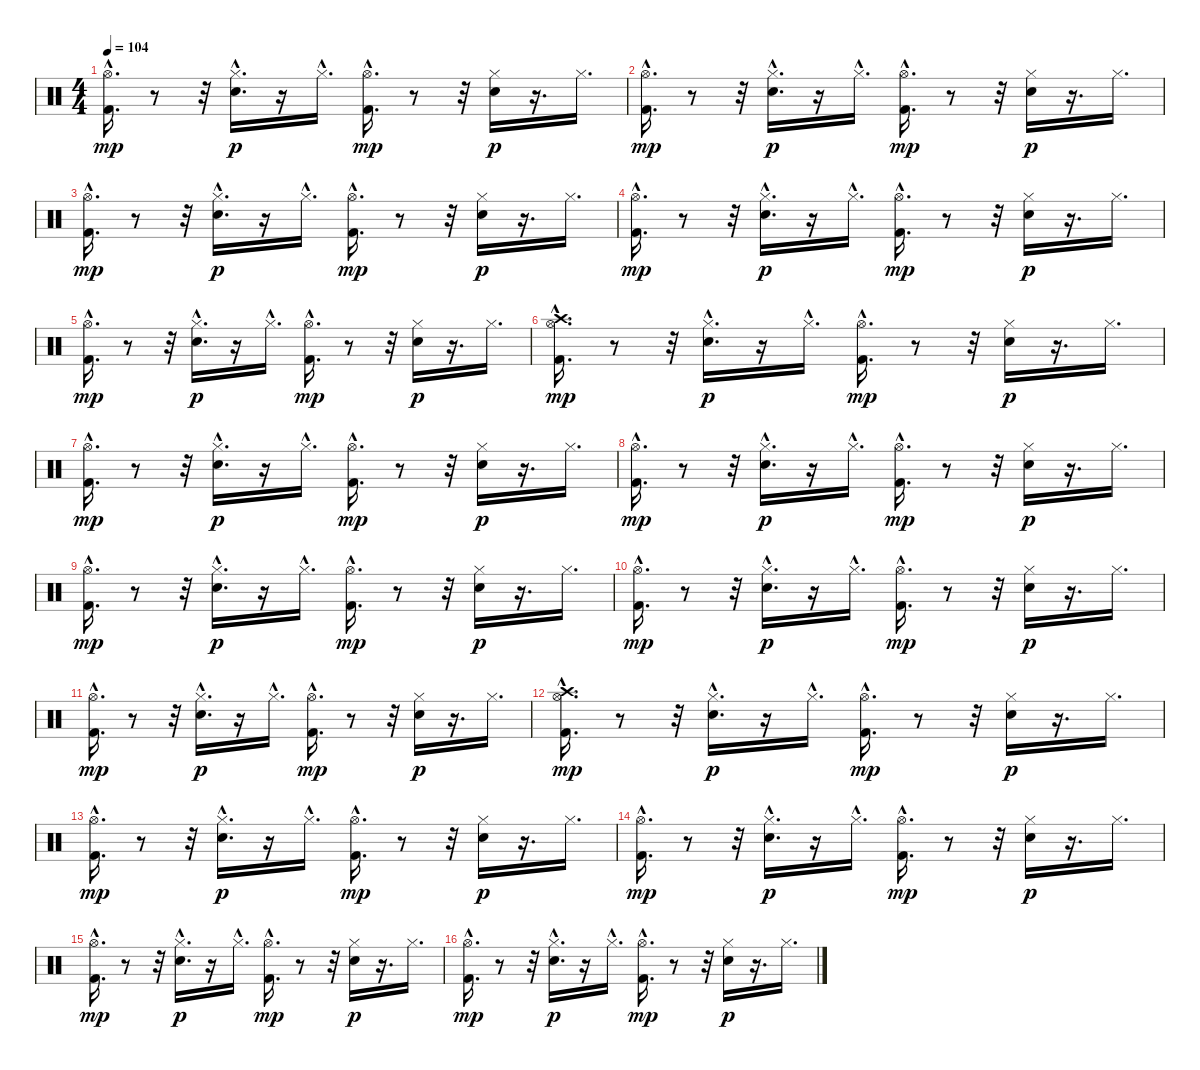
\track "" {instrument percussion}
\staff {score}
\articulation defaults
\ts (4 4)
\tempo 104
\clef neutral
\ks c
("Hi-Hat (open)"{hac} "Kick (hit) 2"{hac}).16{d dy mp} r.8 r.32 ("Hi-Hat (closed)"{hac} "Snare (hit) 2"{hac}).16{d dy p} r.16 "Hi-Hat (closed)"{hac}.16{d} ("Hi-Hat (open)"{hac} "Kick (hit) 2"{hac}).16{d dy mp} r.8 r.32 ("Hi-Hat (closed)" "Snare (hit) 2").16{dy p} r.16{d} "Hi-Hat (closed)".16{d} |
("Hi-Hat (open)"{hac} "Kick (hit) 2"{hac}).16{d dy mp} r.8 r.32 ("Hi-Hat (closed)"{hac} "Snare (hit) 2"{hac}).16{d dy p} r.16 "Hi-Hat (closed)"{hac}.16{d} ("Hi-Hat (open)"{hac} "Kick (hit) 2"{hac}).16{d dy mp} r.8 r.32 ("Hi-Hat (closed)" "Snare (hit) 2").16{dy p} r.16{d} "Hi-Hat (closed)".16{d} |
("Hi-Hat (open)"{hac} "Kick (hit) 2"{hac}).16{d dy mp} r.8 r.32 ("Hi-Hat (closed)"{hac} "Snare (hit) 2"{hac}).16{d dy p} r.16 "Hi-Hat (closed)"{hac}.16{d} ("Hi-Hat (open)"{hac} "Kick (hit) 2"{hac}).16{d dy mp} r.8 r.32 ("Hi-Hat (closed)" "Snare (hit) 2").16{dy p} r.16{d} "Hi-Hat (closed)".16{d} |
("Hi-Hat (open)"{hac} "Kick (hit) 2"{hac}).16{d dy mp} r.8 r.32 ("Hi-Hat (closed)"{hac} "Snare (hit) 2"{hac}).16{d dy p} r.16 "Hi-Hat (closed)"{hac}.16{d} ("Hi-Hat (open)"{hac} "Kick (hit) 2"{hac}).16{d dy mp} r.8 r.32 ("Hi-Hat (closed)" "Snare (hit) 2").16{dy p} r.16{d} "Hi-Hat (closed)".16{d} |
("Hi-Hat (open)"{hac} "Kick (hit) 2"{hac}).16{d dy mp} r.8 r.32 ("Hi-Hat (closed)"{hac} "Snare (hit) 2"{hac}).16{d dy p} r.16 "Hi-Hat (closed)"{hac}.16{d} ("Hi-Hat (open)"{hac} "Kick (hit) 2"{hac}).16{d dy mp} r.8 r.32 ("Hi-Hat (closed)" "Snare (hit) 2").16{dy p} r.16{d} "Hi-Hat (closed)".16{d} |
("Crash high (hit)"{hac} "Hi-Hat (open)"{hac} "Kick (hit) 2"{hac}).16{d dy mp} r.8 r.32 ("Hi-Hat (closed)"{hac} "Snare (hit) 2"{hac}).16{d dy p} r.16 "Hi-Hat (closed)"{hac}.16{d} ("Hi-Hat (open)"{hac} "Kick (hit) 2"{hac}).16{d dy mp} r.8 r.32 ("Hi-Hat (closed)" "Snare (hit) 2").16{dy p} r.16{d} "Hi-Hat (closed)".16{d} |
("Hi-Hat (open)"{hac} "Kick (hit) 2"{hac}).16{d dy mp} r.8 r.32 ("Hi-Hat (closed)"{hac} "Snare (hit) 2"{hac}).16{d dy p} r.16 "Hi-Hat (closed)"{hac}.16{d} ("Hi-Hat (open)"{hac} "Kick (hit) 2"{hac}).16{d dy mp} r.8 r.32 ("Hi-Hat (closed)" "Snare (hit) 2").16{dy p} r.16{d} "Hi-Hat (closed)".16{d} |
("Hi-Hat (open)"{hac} "Kick (hit) 2"{hac}).16{d dy mp} r.8 r.32 ("Hi-Hat (closed)"{hac} "Snare (hit) 2"{hac}).16{d dy p} r.16 "Hi-Hat (closed)"{hac}.16{d} ("Hi-Hat (open)"{hac} "Kick (hit) 2"{hac}).16{d dy mp} r.8 r.32 ("Hi-Hat (closed)" "Snare (hit) 2").16{dy p} r.16{d} "Hi-Hat (closed)".16{d} |
("Hi-Hat (open)"{hac} "Kick (hit) 2"{hac}).16{d dy mp} r.8 r.32 ("Hi-Hat (closed)"{hac} "Snare (hit) 2"{hac}).16{d dy p} r.16 "Hi-Hat (closed)"{hac}.16{d} ("Hi-Hat (open)"{hac} "Kick (hit) 2"{hac}).16{d dy mp} r.8 r.32 ("Hi-Hat (closed)" "Snare (hit) 2").16{dy p} r.16{d} "Hi-Hat (closed)".16{d} |
("Hi-Hat (open)"{hac} "Kick (hit) 2"{hac}).16{d dy mp} r.8 r.32 ("Hi-Hat (closed)"{hac} "Snare (hit) 2"{hac}).16{d dy p} r.16 "Hi-Hat (closed)"{hac}.16{d} ("Hi-Hat (open)"{hac} "Kick (hit) 2"{hac}).16{d dy mp} r.8 r.32 ("Hi-Hat (closed)" "Snare (hit) 2").16{dy p} r.16{d} "Hi-Hat (closed)".16{d} |
("Hi-Hat (open)"{hac} "Kick (hit) 2"{hac}).16{d dy mp} r.8 r.32 ("Hi-Hat (closed)"{hac} "Snare (hit) 2"{hac}).16{d dy p} r.16 "Hi-Hat (closed)"{hac}.16{d} ("Hi-Hat (open)"{hac} "Kick (hit) 2"{hac}).16{d dy mp} r.8 r.32 ("Hi-Hat (closed)" "Snare (hit) 2").16{dy p} r.16{d} "Hi-Hat (closed)".16{d} |
("Crash high (hit)"{hac} "Hi-Hat (open)"{hac} "Kick (hit) 2"{hac}).16{d dy mp} r.8 r.32 ("Hi-Hat (closed)"{hac} "Snare (hit) 2"{hac}).16{d dy p} r.16 "Hi-Hat (closed)"{hac}.16{d} ("Hi-Hat (open)"{hac} "Kick (hit) 2"{hac}).16{d dy mp} r.8 r.32 ("Hi-Hat (closed)" "Snare (hit) 2").16{dy p} r.16{d} "Hi-Hat (closed)".16{d} |
("Hi-Hat (open)"{hac} "Kick (hit) 2"{hac}).16{d dy mp} r.8 r.32 ("Hi-Hat (closed)"{hac} "Snare (hit) 2"{hac}).16{d dy p} r.16 "Hi-Hat (closed)"{hac}.16{d} ("Hi-Hat (open)"{hac} "Kick (hit) 2"{hac}).16{d dy mp} r.8 r.32 ("Hi-Hat (closed)" "Snare (hit) 2").16{dy p} r.16{d} "Hi-Hat (closed)".16{d} |
("Hi-Hat (open)"{hac} "Kick (hit) 2"{hac}).16{d dy mp} r.8 r.32 ("Hi-Hat (closed)"{hac} "Snare (hit) 2"{hac}).16{d dy p} r.16 "Hi-Hat (closed)"{hac}.16{d} ("Hi-Hat (open)"{hac} "Kick (hit) 2"{hac}).16{d dy mp} r.8 r.32 ("Hi-Hat (closed)" "Snare (hit) 2").16{dy p} r.16{d} "Hi-Hat (closed)".16{d} |
("Hi-Hat (open)"{hac} "Kick (hit) 2"{hac}).16{d dy mp} r.8 r.32 ("Hi-Hat (closed)"{hac} "Snare (hit) 2"{hac}).16{d dy p} r.16 "Hi-Hat (closed)"{hac}.16{d} ("Hi-Hat (open)"{hac} "Kick (hit) 2"{hac}).16{d dy mp} r.8 r.32 ("Hi-Hat (closed)" "Snare (hit) 2").16{dy p} r.16{d} "Hi-Hat (closed)".16{d} |
("Hi-Hat (open)"{hac} "Kick (hit) 2"{hac}).16{d dy mp} r.8 r.32 ("Hi-Hat (closed)"{hac} "Snare (hit) 2"{hac}).16{d dy p} r.16 "Hi-Hat (closed)"{hac}.16{d} ("Hi-Hat (open)"{hac} "Kick (hit) 2"{hac}).16{d dy mp} r.8 r.32 ("Hi-Hat (closed)" "Snare (hit) 2").16{dy p} r.16{d} "Hi-Hat (closed)".16{d}
